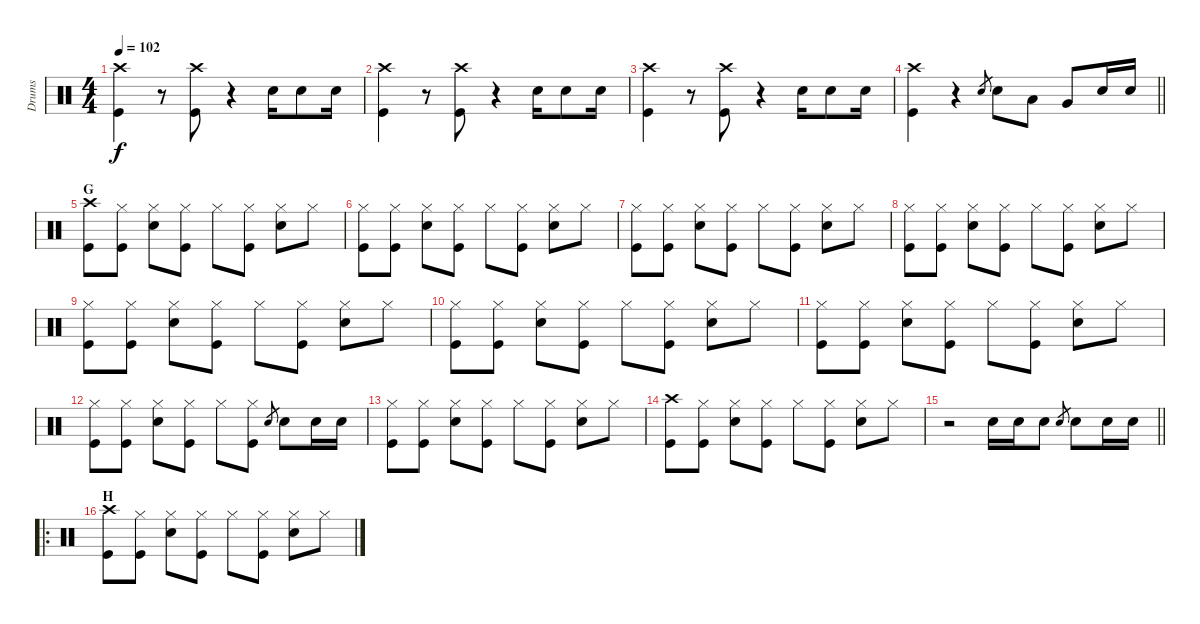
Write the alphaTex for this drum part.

\track ("Drums" "Drums") {instrument percussion}
\staff {score}
\articulation defaults
\ts (4 4)
\tempo 102
\clef neutral
\ks c
("Crash high (hit)" "Kick (hit)").4{dy f} r.8 ("Crash high (hit)" "Kick (hit)").8 r.4 "Electric Snare (hit)".16 "Electric Snare (hit)".8 "Electric Snare (hit)".16 |
("Crash high (hit)" "Kick (hit)").4 r.8 ("Crash high (hit)" "Kick (hit)").8 r.4 "Electric Snare (hit)".16 "Electric Snare (hit)".8 "Electric Snare (hit)".16 |
("Crash high (hit)" "Kick (hit)").4 r.8 ("Crash high (hit)" "Kick (hit)").8 r.4 "Electric Snare (hit)".16 "Electric Snare (hit)".8 "Electric Snare (hit)".16 |
\barLineRight lightlight
("Crash high (hit)" "Kick (hit)").4 r.4 "Electric Snare (hit)".8{gr} "Electric Snare (hit)".8 "Low Tom (hit)".8 "Very Low Tom (hit)".8 "Electric Snare (hit)".16 "Electric Snare (hit)".16 |
\section ("" "G")
("Crash high (hit)" "Kick (hit)").8 ("Hi-Hat (closed)" "Kick (hit)").8 ("Hi-Hat (closed)" "Electric Snare (hit)").8 ("Hi-Hat (closed)" "Kick (hit)").8 "Hi-Hat (closed)".8 ("Hi-Hat (closed)" "Kick (hit)").8 ("Hi-Hat (closed)" "Electric Snare (hit)").8 "Hi-Hat (closed)".8 |
("Hi-Hat (closed)" "Kick (hit)").8 ("Hi-Hat (closed)" "Kick (hit)").8 ("Hi-Hat (closed)" "Electric Snare (hit)").8 ("Hi-Hat (closed)" "Kick (hit)").8 "Hi-Hat (closed)".8 ("Hi-Hat (closed)" "Kick (hit)").8 ("Hi-Hat (closed)" "Electric Snare (hit)").8 "Hi-Hat (closed)".8 |
("Hi-Hat (closed)" "Kick (hit)").8 ("Hi-Hat (closed)" "Kick (hit)").8 ("Hi-Hat (closed)" "Electric Snare (hit)").8 ("Hi-Hat (closed)" "Kick (hit)").8 "Hi-Hat (closed)".8 ("Hi-Hat (closed)" "Kick (hit)").8 ("Hi-Hat (closed)" "Electric Snare (hit)").8 "Hi-Hat (closed)".8 |
("Hi-Hat (closed)" "Kick (hit)").8 ("Hi-Hat (closed)" "Kick (hit)").8 ("Hi-Hat (closed)" "Electric Snare (hit)").8 ("Hi-Hat (closed)" "Kick (hit)").8 "Hi-Hat (closed)".8 ("Hi-Hat (closed)" "Kick (hit)").8 ("Hi-Hat (closed)" "Electric Snare (hit)").8 "Hi-Hat (closed)".8 |
("Hi-Hat (closed)" "Kick (hit)").8 ("Hi-Hat (closed)" "Kick (hit)").8 ("Hi-Hat (closed)" "Electric Snare (hit)").8 ("Hi-Hat (closed)" "Kick (hit)").8 "Hi-Hat (closed)".8 ("Hi-Hat (closed)" "Kick (hit)").8 ("Hi-Hat (closed)" "Electric Snare (hit)").8 "Hi-Hat (closed)".8 |
("Hi-Hat (closed)" "Kick (hit)").8 ("Hi-Hat (closed)" "Kick (hit)").8 ("Hi-Hat (closed)" "Electric Snare (hit)").8 ("Hi-Hat (closed)" "Kick (hit)").8 "Hi-Hat (closed)".8 ("Hi-Hat (closed)" "Kick (hit)").8 ("Hi-Hat (closed)" "Electric Snare (hit)").8 "Hi-Hat (closed)".8 |
("Hi-Hat (closed)" "Kick (hit)").8 ("Hi-Hat (closed)" "Kick (hit)").8 ("Hi-Hat (closed)" "Electric Snare (hit)").8 ("Hi-Hat (closed)" "Kick (hit)").8 "Hi-Hat (closed)".8 ("Hi-Hat (closed)" "Kick (hit)").8 ("Hi-Hat (closed)" "Electric Snare (hit)").8 "Hi-Hat (closed)".8 |
("Hi-Hat (closed)" "Kick (hit)").8 ("Hi-Hat (closed)" "Kick (hit)").8 ("Hi-Hat (closed)" "Electric Snare (hit)").8 ("Hi-Hat (closed)" "Kick (hit)").8 "Hi-Hat (closed)".8 ("Hi-Hat (closed)" "Kick (hit)").8 "Electric Snare (hit)".8{gr} "Electric Snare (hit)".8 "Electric Snare (hit)".16 "Electric Snare (hit)".16 |
("Hi-Hat (closed)" "Kick (hit)").8 ("Hi-Hat (closed)" "Kick (hit)").8 ("Hi-Hat (closed)" "Electric Snare (hit)").8 ("Hi-Hat (closed)" "Kick (hit)").8 "Hi-Hat (closed)".8 ("Hi-Hat (closed)" "Kick (hit)").8 ("Hi-Hat (closed)" "Electric Snare (hit)").8 "Hi-Hat (closed)".8 |
("Crash high (hit)" "Kick (hit)").8 ("Hi-Hat (closed)" "Kick (hit)").8 ("Hi-Hat (closed)" "Electric Snare (hit)").8 ("Hi-Hat (closed)" "Kick (hit)").8 "Hi-Hat (closed)".8 ("Hi-Hat (closed)" "Kick (hit)").8 ("Hi-Hat (closed)" "Electric Snare (hit)").8 "Hi-Hat (closed)".8 |
\barLineRight lightlight
r.2 "Electric Snare (hit)".16 "Electric Snare (hit)".16 "Electric Snare (hit)".8 "Electric Snare (hit)".8{gr} "Electric Snare (hit)".8 "Electric Snare (hit)".16 "Electric Snare (hit)".16 |
\ro
\section ("" "H")
("Crash high (hit)" "Kick (hit)").8 ("Hi-Hat (closed)" "Kick (hit)").8 ("Hi-Hat (closed)" "Electric Snare (hit)").8 ("Hi-Hat (closed)" "Kick (hit)").8 "Hi-Hat (closed)".8 ("Hi-Hat (closed)" "Kick (hit)").8 ("Hi-Hat (closed)" "Electric Snare (hit)").8 "Hi-Hat (closed)".8
